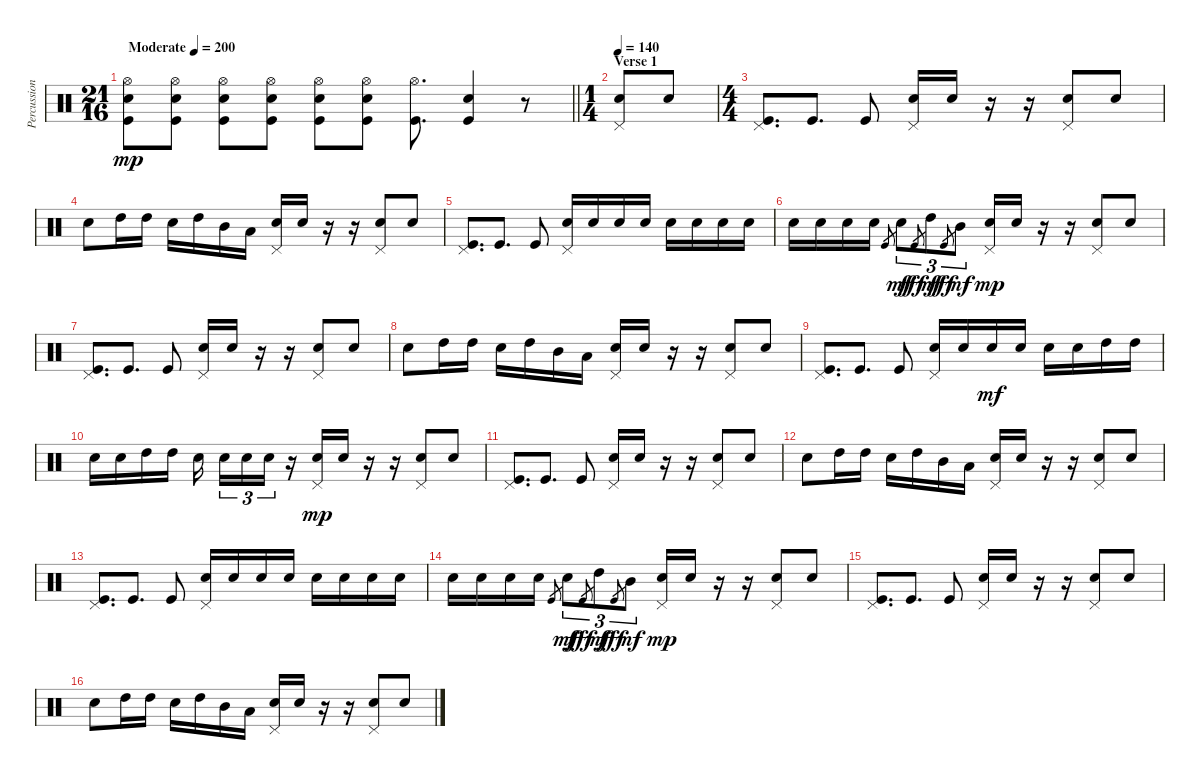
\track ("Percussion" "Percussion") {instrument percussion}
\staff {score}
\articulation defaults
\ts (21 16)
\tempo (200 "Moderate")
\clef neutral
\barLineRight lightlight
\ks c
("Hi-Hat (open)" "Electric Snare (hit)" "Kick (hit)").8{dy mp} ("Hi-Hat (open)" "Electric Snare (hit)" "Kick (hit)").8 ("Hi-Hat (open)" "Electric Snare (hit)" "Kick (hit)").8 ("Hi-Hat (open)" "Electric Snare (hit)" "Kick (hit)").8 ("Hi-Hat (open)" "Electric Snare (hit)" "Kick (hit)").8 ("Hi-Hat (open)" "Electric Snare (hit)" "Kick (hit)").8 ("Hi-Hat (open)" "Kick (hit)").8{d} ("Electric Snare (hit)" "Kick (hit)").4 r.8 |
\ts (1 4)
\section ("" "Verse 1")
\tempo 70
\tempo 140
("Pedal Hi-Hat (hit)" "Electric Snare (hit)").8 "Electric Snare (hit)".8 |
\ts (4 4)
("Pedal Hi-Hat (hit)" "Kick (hit)").8{d} "Kick (hit)".8{d} "Kick (hit)".8 ("Pedal Hi-Hat (hit)" "Electric Snare (hit)").16 "Electric Snare (hit)".16 r.16 r.16 ("Pedal Hi-Hat (hit)" "Electric Snare (hit)").8 "Electric Snare (hit)".8 |
"Electric Snare (hit)".8 "High Tom (hit)".16 "High Tom (hit)".16 "Electric Snare (hit)".16 "High Tom (hit)".16 "Mid Tom (hit)".16 "Low Tom (hit)".16 ("Pedal Hi-Hat (hit)" "Electric Snare (hit)").16 "Electric Snare (hit)".16 r.16 r.16 ("Pedal Hi-Hat (hit)" "Electric Snare (hit)").8 "Electric Snare (hit)".8 |
("Pedal Hi-Hat (hit)" "Kick (hit)").8{d} "Kick (hit)".8{d} "Kick (hit)".8 ("Pedal Hi-Hat (hit)" "Electric Snare (hit)").16 "Electric Snare (hit)".16 "Electric Snare (hit)".16 "Electric Snare (hit)".16 "Electric Snare (hit)".16 "Electric Snare (hit)".16 "Electric Snare (hit)".16 "Electric Snare (hit)".16 |
"Electric Snare (hit)".16 "Electric Snare (hit)".16 "Electric Snare (hit)".16 "Electric Snare (hit)".16 "Kick (hit)".8{gr} "Electric Snare (hit)".8{tu (3 2) dy mf} "Kick (hit)".8{gr dy fff} "High Tom (hit)".8{tu (3 2) dy mf} "Kick (hit)".8{gr dy fff} "Mid Tom (hit)".8{tu (3 2) dy mf} ("Pedal Hi-Hat (hit)" "Electric Snare (hit)").16{dy mp} "Electric Snare (hit)".16 r.16 r.16 ("Pedal Hi-Hat (hit)" "Electric Snare (hit)").8 "Electric Snare (hit)".8 |
("Pedal Hi-Hat (hit)" "Kick (hit)").8{d} "Kick (hit)".8{d} "Kick (hit)".8 ("Pedal Hi-Hat (hit)" "Electric Snare (hit)").16 "Electric Snare (hit)".16 r.16 r.16 ("Pedal Hi-Hat (hit)" "Electric Snare (hit)").8 "Electric Snare (hit)".8 |
"Electric Snare (hit)".8 "High Tom (hit)".16 "High Tom (hit)".16 "Electric Snare (hit)".16 "High Tom (hit)".16 "Mid Tom (hit)".16 "Low Tom (hit)".16 ("Pedal Hi-Hat (hit)" "Electric Snare (hit)").16 "Electric Snare (hit)".16 r.16 r.16 ("Pedal Hi-Hat (hit)" "Electric Snare (hit)").8 "Electric Snare (hit)".8 |
("Pedal Hi-Hat (hit)" "Kick (hit)").8{d} "Kick (hit)".8{d} "Kick (hit)".8 ("Pedal Hi-Hat (hit)" "Electric Snare (hit)").16 "Electric Snare (hit)".16 "Electric Snare (hit)".16{dy mf} "Electric Snare (hit)".16 "Electric Snare (hit)".16 "Electric Snare (hit)".16 "High Tom (hit)".16 "High Tom (hit)".16 |
"Electric Snare (hit)".16 "Electric Snare (hit)".16 "High Tom (hit)".16 "High Tom (hit)".16 "Electric Snare (hit)".16{beam splitsecondary} "Electric Snare (hit)".16{tu (3 2)} "Electric Snare (hit)".16{tu (3 2)} "Electric Snare (hit)".16{tu (3 2)} r.16 ("Pedal Hi-Hat (hit)" "Electric Snare (hit)").16{dy mp} "Electric Snare (hit)".16 r.16 r.16 ("Pedal Hi-Hat (hit)" "Electric Snare (hit)").8 "Electric Snare (hit)".8 |
("Pedal Hi-Hat (hit)" "Kick (hit)").8{d} "Kick (hit)".8{d} "Kick (hit)".8 ("Pedal Hi-Hat (hit)" "Electric Snare (hit)").16 "Electric Snare (hit)".16 r.16 r.16 ("Pedal Hi-Hat (hit)" "Electric Snare (hit)").8 "Electric Snare (hit)".8 |
"Electric Snare (hit)".8 "High Tom (hit)".16 "High Tom (hit)".16 "Electric Snare (hit)".16 "High Tom (hit)".16 "Mid Tom (hit)".16 "Low Tom (hit)".16 ("Pedal Hi-Hat (hit)" "Electric Snare (hit)").16 "Electric Snare (hit)".16 r.16 r.16 ("Pedal Hi-Hat (hit)" "Electric Snare (hit)").8 "Electric Snare (hit)".8 |
("Pedal Hi-Hat (hit)" "Kick (hit)").8{d} "Kick (hit)".8{d} "Kick (hit)".8 ("Pedal Hi-Hat (hit)" "Electric Snare (hit)").16 "Electric Snare (hit)".16 "Electric Snare (hit)".16 "Electric Snare (hit)".16 "Electric Snare (hit)".16 "Electric Snare (hit)".16 "Electric Snare (hit)".16 "Electric Snare (hit)".16 |
"Electric Snare (hit)".16 "Electric Snare (hit)".16 "Electric Snare (hit)".16 "Electric Snare (hit)".16 "Kick (hit)".8{gr} "Electric Snare (hit)".8{tu (3 2) dy mf} "Kick (hit)".8{gr dy fff} "High Tom (hit)".8{tu (3 2) dy mf} "Kick (hit)".8{gr dy fff} "Mid Tom (hit)".8{tu (3 2) dy mf} ("Pedal Hi-Hat (hit)" "Electric Snare (hit)").16{dy mp} "Electric Snare (hit)".16 r.16 r.16 ("Pedal Hi-Hat (hit)" "Electric Snare (hit)").8 "Electric Snare (hit)".8 |
("Pedal Hi-Hat (hit)" "Kick (hit)").8{d} "Kick (hit)".8{d} "Kick (hit)".8 ("Pedal Hi-Hat (hit)" "Electric Snare (hit)").16 "Electric Snare (hit)".16 r.16 r.16 ("Pedal Hi-Hat (hit)" "Electric Snare (hit)").8 "Electric Snare (hit)".8 |
"Electric Snare (hit)".8 "High Tom (hit)".16 "High Tom (hit)".16 "Electric Snare (hit)".16 "High Tom (hit)".16 "Mid Tom (hit)".16 "Low Tom (hit)".16 ("Pedal Hi-Hat (hit)" "Electric Snare (hit)").16 "Electric Snare (hit)".16 r.16 r.16 ("Pedal Hi-Hat (hit)" "Electric Snare (hit)").8 "Electric Snare (hit)".8
